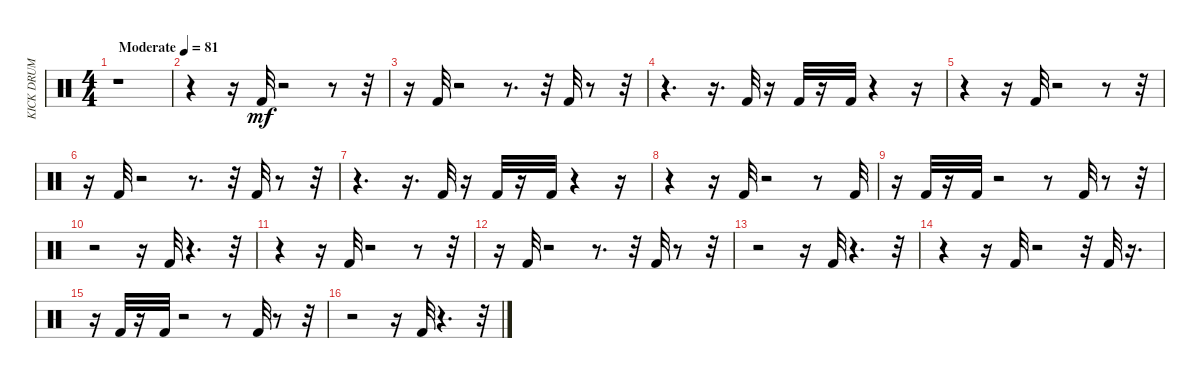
\track ("KICK DRUM LOW." "KICK DRUM ") {instrument percussion}
\staff {score}
\articulation defaults
\ts (4 4)
\tempo (81 "Moderate")
\clef neutral
\ks c
r.1{dy mf} |
r.4 r.16 "Kick (hit) 2".32 r.2 r.8 r.32 |
r.16 "Kick (hit) 2".32 r.2 r.8{d} r.32 "Kick (hit) 2".32 r.8 r.32 |
r.4{d} r.16{d} "Kick (hit) 2".32 r.16 "Kick (hit) 2".32 r.16 "Kick (hit) 2".32 r.4 r.16 |
r.4 r.16 "Kick (hit) 2".32 r.2 r.8 r.32 |
r.16 "Kick (hit) 2".32 r.2 r.8{d} r.32 "Kick (hit) 2".32 r.8 r.32 |
r.4{d} r.16{d} "Kick (hit) 2".32 r.16 "Kick (hit) 2".32 r.16 "Kick (hit) 2".32 r.4 r.16 |
r.4 r.16 "Kick (hit) 2".32 r.2 r.8 "Kick (hit) 2".32 |
r.16 "Kick (hit) 2".32 r.16 "Kick (hit) 2".32 r.2 r.8 "Kick (hit) 2".32 r.8 r.32 |
r.2 r.16 "Kick (hit) 2".32 r.4{d} r.32 |
r.4 r.16 "Kick (hit) 2".32 r.2 r.8 r.32 |
r.16 "Kick (hit) 2".32 r.2 r.8{d} r.32 "Kick (hit) 2".32 r.8 r.32 |
r.2 r.16 "Kick (hit) 2".32 r.4{d} r.32 |
r.4 r.16 "Kick (hit) 2".32 r.2 r.32 "Kick (hit) 2".32 r.16{d} |
r.16 "Kick (hit) 2".32 r.16 "Kick (hit) 2".32 r.2 r.8 "Kick (hit) 2".32 r.8 r.32 |
r.2 r.16 "Kick (hit) 2".32 r.4{d} r.32
